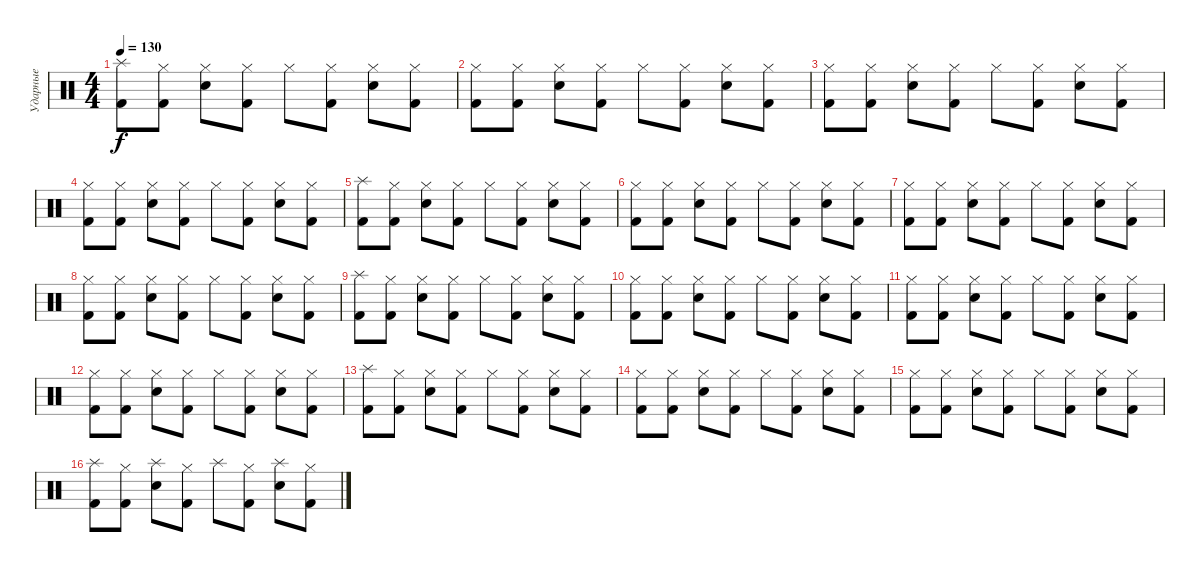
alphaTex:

\track ("Ударные" "Ударные") {instrument percussion}
\staff {score}
\articulation defaults
\ts (4 4)
\tempo 130
\clef neutral
\ks c
("Splash (hit)" "Kick (hit) 2").8{dy f} ("Hi-Hat (closed)" "Kick (hit) 2").8 ("Hi-Hat (closed)" "Electric Snare (hit)").8 ("Hi-Hat (closed)" "Kick (hit) 2").8 "Hi-Hat (closed)".8 ("Hi-Hat (closed)" "Kick (hit) 2").8 ("Hi-Hat (closed)" "Electric Snare (hit)").8 ("Hi-Hat (closed)" "Kick (hit) 2").8 |
("Hi-Hat (closed)" "Kick (hit) 2").8 ("Hi-Hat (closed)" "Kick (hit) 2").8 ("Hi-Hat (closed)" "Electric Snare (hit)").8 ("Hi-Hat (closed)" "Kick (hit) 2").8 "Hi-Hat (closed)".8 ("Hi-Hat (closed)" "Kick (hit) 2").8 ("Hi-Hat (closed)" "Electric Snare (hit)").8 ("Hi-Hat (closed)" "Kick (hit) 2").8 |
("Hi-Hat (closed)" "Kick (hit) 2").8 ("Hi-Hat (closed)" "Kick (hit) 2").8 ("Hi-Hat (closed)" "Electric Snare (hit)").8 ("Hi-Hat (closed)" "Kick (hit) 2").8 "Hi-Hat (closed)".8 ("Hi-Hat (closed)" "Kick (hit) 2").8 ("Hi-Hat (closed)" "Electric Snare (hit)").8 ("Hi-Hat (closed)" "Kick (hit) 2").8 |
("Hi-Hat (closed)" "Kick (hit) 2").8 ("Hi-Hat (closed)" "Kick (hit) 2").8 ("Hi-Hat (closed)" "Electric Snare (hit)").8 ("Hi-Hat (closed)" "Kick (hit) 2").8 "Hi-Hat (closed)".8 ("Hi-Hat (closed)" "Kick (hit) 2").8 ("Hi-Hat (closed)" "Electric Snare (hit)").8 ("Hi-Hat (closed)" "Kick (hit) 2").8 |
("Splash (hit)" "Kick (hit) 2").8 ("Hi-Hat (closed)" "Kick (hit) 2").8 ("Hi-Hat (closed)" "Electric Snare (hit)").8 ("Hi-Hat (closed)" "Kick (hit) 2").8 "Hi-Hat (closed)".8 ("Hi-Hat (closed)" "Kick (hit) 2").8 ("Hi-Hat (closed)" "Electric Snare (hit)").8 ("Hi-Hat (closed)" "Kick (hit) 2").8 |
("Hi-Hat (closed)" "Kick (hit) 2").8 ("Hi-Hat (closed)" "Kick (hit) 2").8 ("Hi-Hat (closed)" "Electric Snare (hit)").8 ("Hi-Hat (closed)" "Kick (hit) 2").8 "Hi-Hat (closed)".8 ("Hi-Hat (closed)" "Kick (hit) 2").8 ("Hi-Hat (closed)" "Electric Snare (hit)").8 ("Hi-Hat (closed)" "Kick (hit) 2").8 |
("Hi-Hat (closed)" "Kick (hit) 2").8 ("Hi-Hat (closed)" "Kick (hit) 2").8 ("Hi-Hat (closed)" "Electric Snare (hit)").8 ("Hi-Hat (closed)" "Kick (hit) 2").8 "Hi-Hat (closed)".8 ("Hi-Hat (closed)" "Kick (hit) 2").8 ("Hi-Hat (closed)" "Electric Snare (hit)").8 ("Hi-Hat (closed)" "Kick (hit) 2").8 |
("Hi-Hat (closed)" "Kick (hit) 2").8 ("Hi-Hat (closed)" "Kick (hit) 2").8 ("Hi-Hat (closed)" "Electric Snare (hit)").8 ("Hi-Hat (closed)" "Kick (hit) 2").8 "Hi-Hat (closed)".8 ("Hi-Hat (closed)" "Kick (hit) 2").8 ("Hi-Hat (closed)" "Electric Snare (hit)").8 ("Hi-Hat (closed)" "Kick (hit) 2").8 |
("Splash (hit)" "Kick (hit) 2").8 ("Hi-Hat (closed)" "Kick (hit) 2").8 ("Hi-Hat (closed)" "Electric Snare (hit)").8 ("Hi-Hat (closed)" "Kick (hit) 2").8 "Hi-Hat (closed)".8 ("Hi-Hat (closed)" "Kick (hit) 2").8 ("Hi-Hat (closed)" "Electric Snare (hit)").8 ("Hi-Hat (closed)" "Kick (hit) 2").8 |
("Hi-Hat (closed)" "Kick (hit) 2").8 ("Hi-Hat (closed)" "Kick (hit) 2").8 ("Hi-Hat (closed)" "Electric Snare (hit)").8 ("Hi-Hat (closed)" "Kick (hit) 2").8 "Hi-Hat (closed)".8 ("Hi-Hat (closed)" "Kick (hit) 2").8 ("Hi-Hat (closed)" "Electric Snare (hit)").8 ("Hi-Hat (closed)" "Kick (hit) 2").8 |
("Hi-Hat (closed)" "Kick (hit) 2").8 ("Hi-Hat (closed)" "Kick (hit) 2").8 ("Hi-Hat (closed)" "Electric Snare (hit)").8 ("Hi-Hat (closed)" "Kick (hit) 2").8 "Hi-Hat (closed)".8 ("Hi-Hat (closed)" "Kick (hit) 2").8 ("Hi-Hat (closed)" "Electric Snare (hit)").8 ("Hi-Hat (closed)" "Kick (hit) 2").8 |
("Hi-Hat (closed)" "Kick (hit) 2").8 ("Hi-Hat (closed)" "Kick (hit) 2").8 ("Hi-Hat (closed)" "Electric Snare (hit)").8 ("Hi-Hat (closed)" "Kick (hit) 2").8 "Hi-Hat (closed)".8 ("Hi-Hat (closed)" "Kick (hit) 2").8 ("Hi-Hat (closed)" "Electric Snare (hit)").8 ("Hi-Hat (closed)" "Kick (hit) 2").8 |
("Splash (hit)" "Kick (hit) 2").8 ("Hi-Hat (closed)" "Kick (hit) 2").8 ("Hi-Hat (closed)" "Electric Snare (hit)").8 ("Hi-Hat (closed)" "Kick (hit) 2").8 "Hi-Hat (closed)".8 ("Hi-Hat (closed)" "Kick (hit) 2").8 ("Hi-Hat (closed)" "Electric Snare (hit)").8 ("Hi-Hat (closed)" "Kick (hit) 2").8 |
("Hi-Hat (closed)" "Kick (hit) 2").8 ("Hi-Hat (closed)" "Kick (hit) 2").8 ("Hi-Hat (closed)" "Electric Snare (hit)").8 ("Hi-Hat (closed)" "Kick (hit) 2").8 "Hi-Hat (closed)".8 ("Hi-Hat (closed)" "Kick (hit) 2").8 ("Hi-Hat (closed)" "Electric Snare (hit)").8 ("Hi-Hat (closed)" "Kick (hit) 2").8 |
("Hi-Hat (closed)" "Kick (hit) 2").8 ("Hi-Hat (closed)" "Kick (hit) 2").8 ("Hi-Hat (closed)" "Electric Snare (hit)").8 ("Hi-Hat (closed)" "Kick (hit) 2").8 "Hi-Hat (closed)".8 ("Hi-Hat (closed)" "Kick (hit) 2").8 ("Hi-Hat (closed)" "Electric Snare (hit)").8 ("Hi-Hat (closed)" "Kick (hit) 2").8 |
("Splash (hit)" "Kick (hit) 2").8 ("Hi-Hat (closed)" "Kick (hit) 2").8 ("Splash (hit)" "Electric Snare (hit)").8 ("Hi-Hat (closed)" "Kick (hit) 2").8 "Splash (hit)".8 ("Hi-Hat (closed)" "Kick (hit) 2").8 ("Splash (hit)" "Electric Snare (hit)").8 ("Hi-Hat (closed)" "Kick (hit) 2").8
